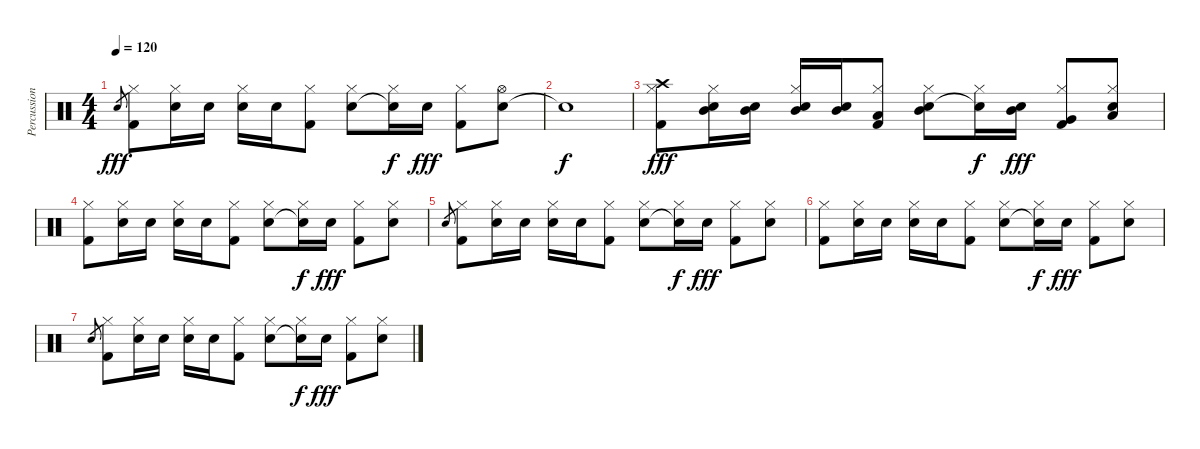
\track ("Percussion" "Percussion") {instrument percussion}
\staff {score}
\articulation defaults
\ts (4 4)
\tempo 120
\clef neutral
\ks c "Electric Snare (hit)".8{gr dy fff}
("Kick (hit) 2" "Hi-Hat (closed)").8 ("Electric Snare (hit)" "Hi-Hat (closed)").16 "Electric Snare (hit)".16 ("Electric Snare (hit)" "Hi-Hat (closed)").16 "Electric Snare (hit)".16 ("Kick (hit) 2" "Hi-Hat (closed)").8 ("Electric Snare (hit)" "Hi-Hat (closed)").8 ("Snare (hit)"{t} "Hi-Hat (closed)").16{dy f} "Electric Snare (hit)".16{dy fff} ("Kick (hit) 2" "Hi-Hat (closed)").8 ("Electric Snare (hit)" "Hi-Hat (open)").8 |
"Snare (hit)"{t}.1{dy f} |
("Kick (hit) 2" "Hi-Hat (closed)" "Crash high (hit)").8{dy fff} ("Electric Snare (hit)" "Hi-Hat (closed)" "Mid Tom (hit)").16 ("Electric Snare (hit)" "Mid Tom (hit)").16 ("Electric Snare (hit)" "Hi-Hat (closed)" "Mid Tom (hit)").16 ("Electric Snare (hit)" "Mid Tom (hit)").16 ("Kick (hit) 2" "Hi-Hat (closed)" "Low Tom (hit)").8 ("Electric Snare (hit)" "Hi-Hat (closed)" "Mid Tom (hit)").8 ("Snare (hit)"{t} "Hi-Hat (closed)").16{dy f} ("Electric Snare (hit)" "Mid Tom (hit)").16{dy fff} ("Kick (hit) 2" "Hi-Hat (closed)" "Very Low Tom (hit)").8 ("Electric Snare (hit)" "Hi-Hat (closed)" "Low Floor Tom (hit)").8 |
("Kick (hit) 2" "Hi-Hat (closed)").8 ("Electric Snare (hit)" "Hi-Hat (closed)").16 "Electric Snare (hit)".16 ("Electric Snare (hit)" "Hi-Hat (closed)").16 "Electric Snare (hit)".16 ("Kick (hit) 2" "Hi-Hat (closed)").8 ("Electric Snare (hit)" "Hi-Hat (closed)").8 ("Snare (hit)"{t} "Hi-Hat (closed)").16{dy f} "Electric Snare (hit)".16{dy fff} ("Kick (hit) 2" "Hi-Hat (closed)").8 ("Electric Snare (hit)" "Hi-Hat (closed)").8 |
"Electric Snare (hit)".8{gr} ("Kick (hit) 2" "Hi-Hat (closed)").8 ("Electric Snare (hit)" "Hi-Hat (closed)").16 "Electric Snare (hit)".16 ("Electric Snare (hit)" "Hi-Hat (closed)").16 "Electric Snare (hit)".16 ("Kick (hit) 2" "Hi-Hat (closed)").8 ("Electric Snare (hit)" "Hi-Hat (closed)").8 ("Snare (hit)"{t} "Hi-Hat (closed)").16{dy f} "Electric Snare (hit)".16{dy fff} ("Kick (hit) 2" "Hi-Hat (closed)").8 ("Electric Snare (hit)" "Hi-Hat (closed)").8 |
("Kick (hit) 2" "Hi-Hat (closed)").8 ("Electric Snare (hit)" "Hi-Hat (closed)").16 "Electric Snare (hit)".16 ("Electric Snare (hit)" "Hi-Hat (closed)").16 "Electric Snare (hit)".16 ("Kick (hit) 2" "Hi-Hat (closed)").8 ("Electric Snare (hit)" "Hi-Hat (closed)").8 ("Snare (hit)"{t} "Hi-Hat (closed)").16{dy f} "Electric Snare (hit)".16{dy fff} ("Kick (hit) 2" "Hi-Hat (closed)").8 ("Electric Snare (hit)" "Hi-Hat (closed)").8 |
"Electric Snare (hit)".8{gr} ("Kick (hit) 2" "Hi-Hat (closed)").8 ("Electric Snare (hit)" "Hi-Hat (closed)").16 "Electric Snare (hit)".16 ("Electric Snare (hit)" "Hi-Hat (closed)").16 "Electric Snare (hit)".16 ("Kick (hit) 2" "Hi-Hat (closed)").8 ("Electric Snare (hit)" "Hi-Hat (closed)").8 ("Snare (hit)"{t} "Hi-Hat (closed)").16{dy f} "Electric Snare (hit)".16{dy fff} ("Kick (hit) 2" "Hi-Hat (closed)").8 ("Electric Snare (hit)" "Hi-Hat (closed)").8
